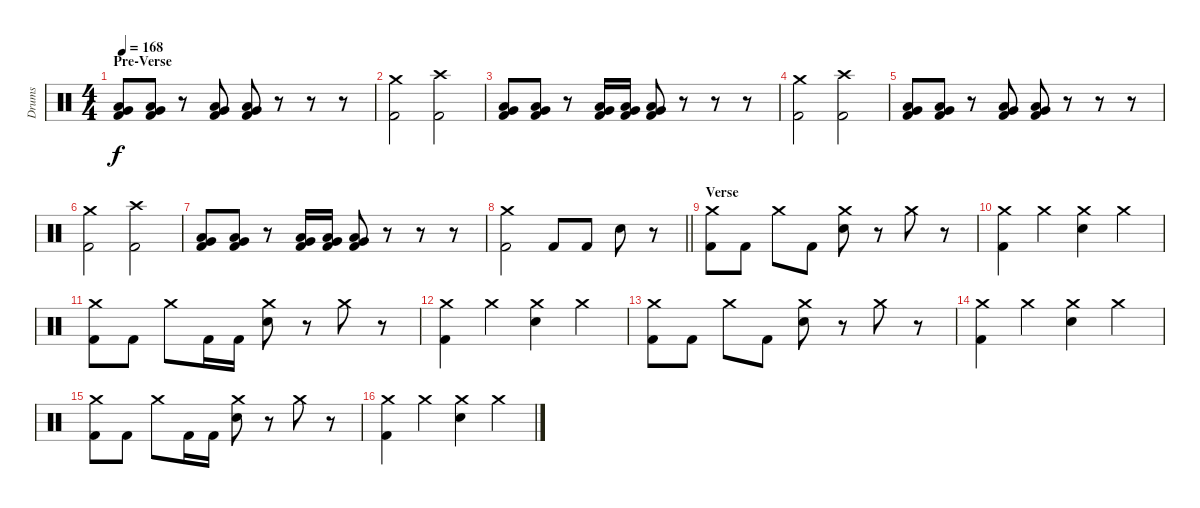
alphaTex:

\track ("Drums" "Drums") {instrument percussion}
\staff {score}
\articulation defaults
\ts (4 4)
\section ("" "Pre-Verse")
\tempo 168
\clef neutral
\ks c
("Low Tom (hit)" "Very Low Tom (hit)" "Kick (hit) 2").8{dy f} ("Low Tom (hit)" "Very Low Tom (hit)" "Kick (hit) 2").8 r.8 ("Low Tom (hit)" "Very Low Tom (hit)" "Kick (hit) 2").8 ("Low Tom (hit)" "Very Low Tom (hit)" "Kick (hit) 2").8 r.8 r.8 r.8 |
("Crash medium (hit)" "Kick (hit) 2").2 ("Crash high (hit)" "Kick (hit) 2").2 |
("Low Tom (hit)" "Very Low Tom (hit)" "Kick (hit) 2").8 ("Low Tom (hit)" "Very Low Tom (hit)" "Kick (hit) 2").8 r.8 ("Low Tom (hit)" "Very Low Tom (hit)" "Kick (hit) 2").16 ("Low Tom (hit)" "Very Low Tom (hit)" "Kick (hit) 2").16 ("Low Tom (hit)" "Very Low Tom (hit)" "Kick (hit) 2").8 r.8 r.8 r.8 |
("Crash medium (hit)" "Kick (hit) 2").2 ("Crash high (hit)" "Kick (hit) 2").2 |
("Low Tom (hit)" "Very Low Tom (hit)" "Kick (hit) 2").8 ("Low Tom (hit)" "Very Low Tom (hit)" "Kick (hit) 2").8 r.8 ("Low Tom (hit)" "Very Low Tom (hit)" "Kick (hit) 2").8 ("Low Tom (hit)" "Very Low Tom (hit)" "Kick (hit) 2").8 r.8 r.8 r.8 |
("Crash medium (hit)" "Kick (hit) 2").2 ("Crash high (hit)" "Kick (hit) 2").2 |
("Low Tom (hit)" "Very Low Tom (hit)" "Kick (hit) 2").8 ("Low Tom (hit)" "Very Low Tom (hit)" "Kick (hit) 2").8 r.8 ("Low Tom (hit)" "Very Low Tom (hit)" "Kick (hit) 2").16 ("Low Tom (hit)" "Very Low Tom (hit)" "Kick (hit) 2").16 ("Low Tom (hit)" "Very Low Tom (hit)" "Kick (hit) 2").8 r.8 r.8 r.8 |
\barLineRight lightlight
("Crash medium (hit)" "Kick (hit) 2").2 "Kick (hit) 2".8 "Kick (hit) 2".8 "Electric Snare (hit)".8 r.8 |
\section ("" "Verse")
("Crash medium (hit)" "Kick (hit) 2").8 "Kick (hit) 2".8 "Crash medium (hit)".8 "Kick (hit) 2".8 ("Crash medium (hit)" "Electric Snare (hit)").8 r.8 "Crash medium (hit)".8 r.8 |
("Crash medium (hit)" "Kick (hit) 2").4 "Crash medium (hit)".4 ("Crash medium (hit)" "Electric Snare (hit)").4 "Crash medium (hit)".4 |
("Crash medium (hit)" "Kick (hit) 2").8 "Kick (hit) 2".8 "Crash medium (hit)".8 "Kick (hit) 2".16 "Kick (hit) 2".16 ("Crash medium (hit)" "Electric Snare (hit)").8 r.8 "Crash medium (hit)".8 r.8 |
("Crash medium (hit)" "Kick (hit) 2").4 "Crash medium (hit)".4 ("Crash medium (hit)" "Electric Snare (hit)").4 "Crash medium (hit)".4 |
("Crash medium (hit)" "Kick (hit) 2").8 "Kick (hit) 2".8 "Crash medium (hit)".8 "Kick (hit) 2".8 ("Crash medium (hit)" "Electric Snare (hit)").8 r.8 "Crash medium (hit)".8 r.8 |
("Crash medium (hit)" "Kick (hit) 2").4 "Crash medium (hit)".4 ("Crash medium (hit)" "Electric Snare (hit)").4 "Crash medium (hit)".4 |
("Crash medium (hit)" "Kick (hit) 2").8 "Kick (hit) 2".8 "Crash medium (hit)".8 "Kick (hit) 2".16 "Kick (hit) 2".16 ("Crash medium (hit)" "Electric Snare (hit)").8 r.8 "Crash medium (hit)".8 r.8 |
("Crash medium (hit)" "Kick (hit) 2").4 "Crash medium (hit)".4 ("Crash medium (hit)" "Electric Snare (hit)").4 "Crash medium (hit)".4
